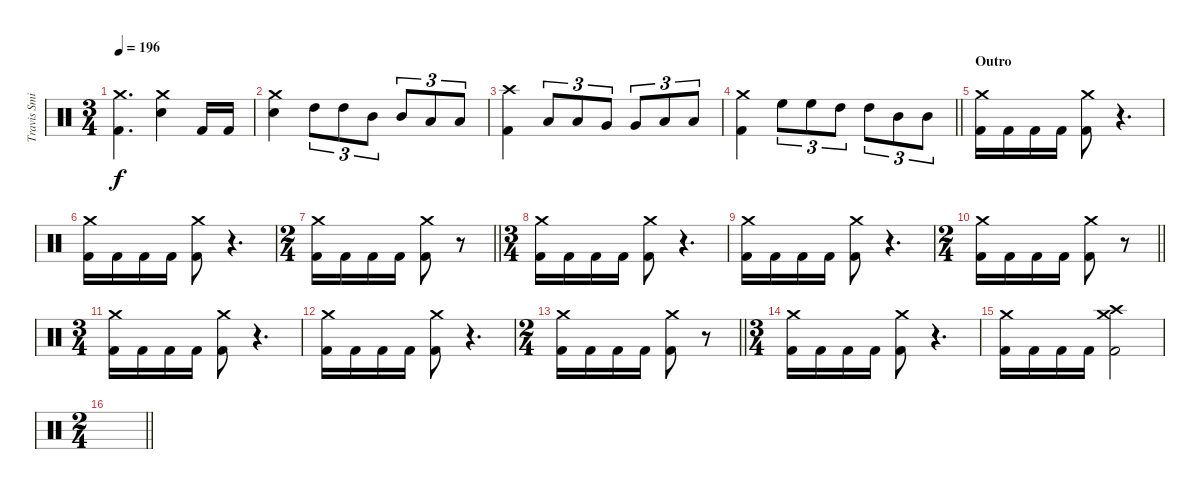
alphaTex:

\track ("Travis Smith" "Travis Smi") {instrument percussion}
\staff {score}
\articulation defaults
\ts (3 4)
\tempo 196
\clef neutral
\ks c
("Crash medium (hit)" "Kick (hit) 2").4{d dy f} ("Crash medium (hit)" "Electric Snare (hit)").4 "Kick (hit) 2".16 "Kick (hit) 2".16 |
("Crash medium (hit)" "Electric Snare (hit)").4 "High Tom (hit)".8{tu (3 2)} "High Tom (hit)".8{tu (3 2)} "Mid Tom (hit)".8{tu (3 2)} "Mid Tom (hit)".8{tu (3 2)} "Low Tom (hit)".8{tu (3 2)} "Low Tom (hit)".8{tu (3 2)} |
("Crash high (hit)" "Kick (hit) 2").4 "Low Tom (hit)".8{tu (3 2)} "Low Tom (hit)".8{tu (3 2)} "Very Low Tom (hit)".8{tu (3 2)} "Very Low Tom (hit)".8{tu (3 2)} "Low Floor Tom (hit)".8{tu (3 2)} "Low Floor Tom (hit)".8{tu (3 2)} |
\barLineRight lightlight
("Crash medium (hit)" "Kick (hit) 2").4 "High Floor Tom (hit)".8{tu (3 2)} "High Floor Tom (hit)".8{tu (3 2)} "High Tom (hit)".8{tu (3 2)} "High Tom (hit)".8{tu (3 2)} "Mid Tom (hit)".8{tu (3 2)} "Mid Tom (hit)".8{tu (3 2)} |
\section ("" "Outro")
("Crash medium (hit)" "Kick (hit) 2").16 "Kick (hit) 2".16 "Kick (hit) 2".16 "Kick (hit) 2".16 ("Crash medium (hit)" "Kick (hit) 2").8 r.4{d volume 0} |
("Crash medium (hit)" "Kick (hit) 2").16{volume 13} "Kick (hit) 2".16 "Kick (hit) 2".16 "Kick (hit) 2".16 ("Crash medium (hit)" "Kick (hit) 2").8 r.4{d volume 0} |
\ts (2 4)
\barLineRight lightlight
("Crash medium (hit)" "Kick (hit) 2").16{volume 13} "Kick (hit) 2".16 "Kick (hit) 2".16 "Kick (hit) 2".16 ("Crash medium (hit)" "Kick (hit) 2").8 r.8{volume 0} |
\ts (3 4)
("Crash medium (hit)" "Kick (hit) 2").16{volume 13} "Kick (hit) 2".16 "Kick (hit) 2".16 "Kick (hit) 2".16 ("Crash medium (hit)" "Kick (hit) 2").8 r.4{d volume 0} |
("Crash medium (hit)" "Kick (hit) 2").16{volume 13} "Kick (hit) 2".16 "Kick (hit) 2".16 "Kick (hit) 2".16 ("Crash medium (hit)" "Kick (hit) 2").8 r.4{d volume 0} |
\ts (2 4)
\barLineRight lightlight
("Crash medium (hit)" "Kick (hit) 2").16{volume 13} "Kick (hit) 2".16 "Kick (hit) 2".16 "Kick (hit) 2".16 ("Crash medium (hit)" "Kick (hit) 2").8 r.8{volume 0} |
\ts (3 4)
("Crash medium (hit)" "Kick (hit) 2").16{volume 13} "Kick (hit) 2".16 "Kick (hit) 2".16 "Kick (hit) 2".16 ("Crash medium (hit)" "Kick (hit) 2").8 r.4{d volume 0} |
("Crash medium (hit)" "Kick (hit) 2").16{volume 13} "Kick (hit) 2".16 "Kick (hit) 2".16 "Kick (hit) 2".16 ("Crash medium (hit)" "Kick (hit) 2").8 r.4{d volume 0} |
\ts (2 4)
\barLineRight lightlight
("Crash medium (hit)" "Kick (hit) 2").16{volume 13} "Kick (hit) 2".16 "Kick (hit) 2".16 "Kick (hit) 2".16 ("Crash medium (hit)" "Kick (hit) 2").8 r.8{volume 0} |
\ts (3 4)
("Crash medium (hit)" "Kick (hit) 2").16{volume 13} "Kick (hit) 2".16 "Kick (hit) 2".16 "Kick (hit) 2".16 ("Crash medium (hit)" "Kick (hit) 2").8 r.4{d volume 0} |
("Crash medium (hit)" "Kick (hit) 2").16{volume 13} "Kick (hit) 2".16 "Kick (hit) 2".16 "Kick (hit) 2".16 ("Crash medium (hit)" "Crash high (hit)" "Kick (hit) 2").2 |
\ts (2 4)
\barLineRight lightlight
